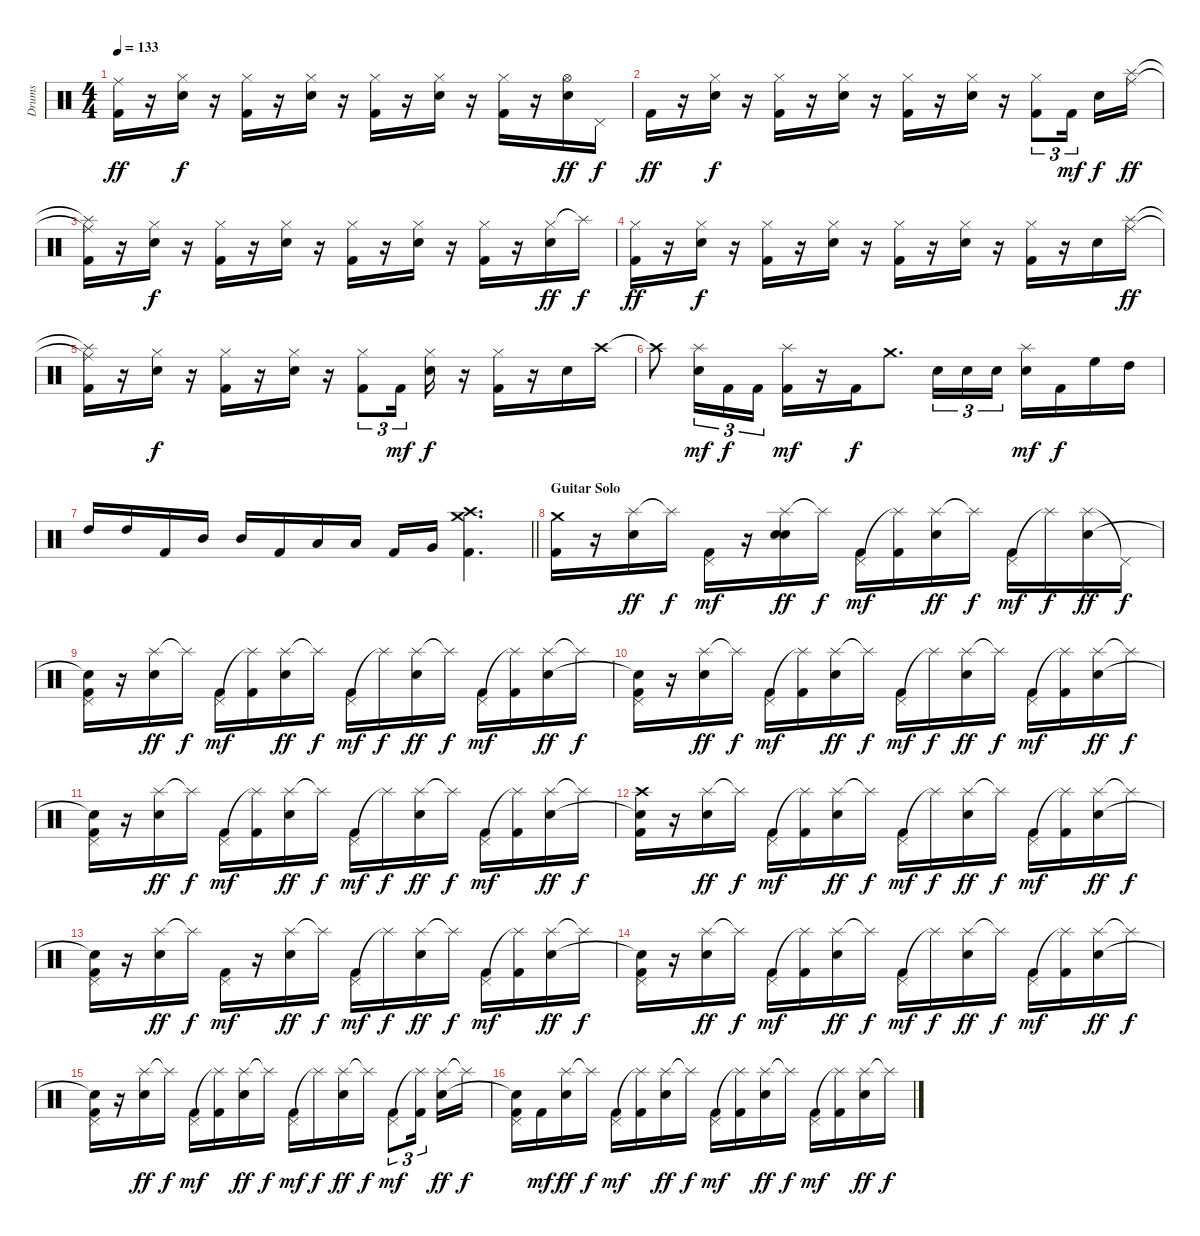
\track ("Drums" "Drums") {instrument percussion}
\staff {score}
\articulation defaults
\ts (4 4)
\tempo 133
\clef neutral
\ks c
("Ride (middle)"{t} "Kick (hit) 2").16{dy ff} r.16 ("Hi-Hat (closed)" "Snare (hit) 2").16{dy f} r.16 ("Hi-Hat (closed)" "Kick (hit) 2").16 r.16 ("Hi-Hat (closed)" "Snare (hit) 2").16 r.16 ("Hi-Hat (closed)" "Kick (hit) 2").16 r.16 ("Hi-Hat (closed)" "Snare (hit) 2").16 r.16 ("Hi-Hat (closed)" "Kick (hit) 2").16 r.16 ("Hi-Hat (open)" "Snare (hit) 2").16{dy ff} "Pedal Hi-Hat (hit)".16{dy f} |
"Kick (hit) 2".16{dy ff} r.16 ("Hi-Hat (closed)" "Snare (hit) 2").16{dy f} r.16 ("Hi-Hat (closed)" "Kick (hit) 2").16 r.16 ("Hi-Hat (closed)" "Snare (hit) 2").16 r.16 ("Hi-Hat (closed)" "Kick (hit) 2").16 r.16 ("Hi-Hat (closed)" "Snare (hit) 2").16 r.16 ("Hi-Hat (closed)" "Kick (hit) 2").8{tu (3 2)} "Kick (hit) 2".16{tu (3 2) dy mf beam splitsecondary} "Snare (hit) 2".16{dy f} ("Ride (middle)" "Splash (hit)").16{dy ff} |
("Ride (middle)"{t} "Splash (hit)"{t} "Kick (hit) 2").16 r.16 ("Hi-Hat (closed)" "Snare (hit) 2").16{dy f} r.16 ("Hi-Hat (closed)" "Kick (hit) 2").16 r.16 ("Hi-Hat (closed)" "Snare (hit) 2").16 r.16 ("Hi-Hat (closed)" "Kick (hit) 2").16 r.16 ("Hi-Hat (closed)" "Snare (hit) 2").16 r.16 ("Hi-Hat (closed)" "Kick (hit) 2").16 r.16 ("Hi-Hat (closed)" "Snare (hit) 2").16{dy ff} "Splash (hit)"{t}.16{dy f} |
("Hi-Hat (closed)" "Kick (hit) 2").16{dy ff} r.16 ("Hi-Hat (closed)" "Snare (hit) 2").16{dy f} r.16 ("Hi-Hat (closed)" "Kick (hit) 2").16 r.16 ("Hi-Hat (closed)" "Snare (hit) 2").16 r.16 ("Hi-Hat (closed)" "Kick (hit) 2").16 r.16 ("Hi-Hat (closed)" "Snare (hit) 2").16 r.16 ("Hi-Hat (closed)" "Kick (hit) 2").16 r.16 "Snare (hit) 2".16 ("Ride (middle)" "Splash (hit)").16{dy ff} |
("Ride (middle)"{t} "Splash (hit)"{t} "Kick (hit) 2").16 r.16 ("Hi-Hat (closed)" "Snare (hit) 2").16{dy f} r.16 ("Hi-Hat (closed)" "Kick (hit) 2").16 r.16 ("Hi-Hat (closed)" "Snare (hit) 2").16 r.16 ("Hi-Hat (closed)" "Kick (hit) 2").8{tu (3 2)} "Kick (hit) 2".16{tu (3 2) dy mf} ("Hi-Hat (closed)" "Snare (hit) 2").16{dy f} r.16 ("Hi-Hat (closed)" "Kick (hit) 2").16 r.16 "Snare (hit) 2".16 "Crash high (hit)".16 |
"Crash high (hit)"{t}.8 ("Splash (hit)" "Snare (hit) 2").16{tu (3 2) dy mf} "Kick (hit) 2".16{tu (3 2) dy f} "Kick (hit) 2".16{tu (3 2)} ("Splash (hit)" "Kick (hit) 2").16{dy mf} r.16 "Kick (hit) 2".16{dy f} "Crash medium (hit)".8{d} "Snare (hit) 2".16{tu (3 2)} "Snare (hit) 2".16{tu (3 2)} "Snare (hit) 2".16{tu (3 2)} ("Splash (hit)" "Snare (hit) 2").16{dy mf} "Kick (hit) 2".16{dy f} "High Floor Tom (hit)".16 "High Tom (hit)".16 |
\barLineRight lightlight "High Tom (hit)".16 "High Tom (hit)".16 "Kick (hit) 2".16 "Mid Tom (hit)".16 "Mid Tom (hit)".16 "Kick (hit) 2".16 "Low Tom (hit)".16 "Low Tom (hit)".16 "Kick (hit) 2".16 "Very Low Tom (hit)".16
("Crash medium (hit)" "Crash high (hit)" "Kick (hit) 2").4{d} |
\section ("" "Guitar Solo")
("Crash medium (hit)" "Kick (hit) 2").16 r.16 ("Splash (hit)" "Snare (hit) 2").16{dy ff} "Splash (hit)"{t}.16{dy f} ("Pedal Hi-Hat (hit)" "Kick (hit) 2").16{dy mf} r.16 ("Splash (hit)" "Snare (hit) 2" "Snare (hit) 2").16{dy ff} "Splash (hit)"{t}.16{dy f} ("Pedal Hi-Hat (hit)" "Kick (hit) 2").16{dy mf} ("Splash (hit)"{t} "Kick (hit) 2").16 ("Splash (hit)" "Snare (hit) 2").16{dy ff} "Splash (hit)"{t}.16{dy f} ("Pedal Hi-Hat (hit)" "Kick (hit) 2").16{dy mf} "Splash (hit)"{t}.16{dy f} ("Splash (hit)" "Snare (hit) 2").16{dy ff} "Pedal Hi-Hat (hit)"{t}.16{dy f} |
("Pedal Hi-Hat (hit)" "Snare (hit)"{t} "Kick (hit) 2").16 r.16 ("Splash (hit)" "Snare (hit) 2").16{dy ff} "Splash (hit)"{t}.16{dy f} ("Pedal Hi-Hat (hit)" "Kick (hit) 2").16{dy mf} ("Splash (hit)"{t} "Kick (hit) 2").16 ("Splash (hit)" "Snare (hit) 2").16{dy ff} "Splash (hit)"{t}.16{dy f} ("Pedal Hi-Hat (hit)" "Kick (hit) 2").16{dy mf} "Splash (hit)"{t}.16{dy f} ("Splash (hit)" "Snare (hit) 2").16{dy ff} "Splash (hit)"{t}.16{dy f} ("Pedal Hi-Hat (hit)" "Kick (hit) 2").16{dy mf} ("Splash (hit)"{t} "Kick (hit) 2").16 ("Splash (hit)" "Snare (hit) 2").16{dy ff} "Splash (hit)"{t}.16{dy f} |
("Pedal Hi-Hat (hit)" "Snare (hit)"{t} "Kick (hit) 2").16 r.16 ("Splash (hit)" "Snare (hit) 2").16{dy ff} "Splash (hit)"{t}.16{dy f} ("Pedal Hi-Hat (hit)" "Kick (hit) 2").16{dy mf} ("Splash (hit)"{t} "Kick (hit) 2").16 ("Splash (hit)" "Snare (hit) 2").16{dy ff} "Splash (hit)"{t}.16{dy f} ("Pedal Hi-Hat (hit)" "Kick (hit) 2").16{dy mf} "Splash (hit)"{t}.16{dy f} ("Splash (hit)" "Snare (hit) 2").16{dy ff} "Splash (hit)"{t}.16{dy f} ("Pedal Hi-Hat (hit)" "Kick (hit) 2").16{dy mf} ("Splash (hit)"{t} "Kick (hit) 2").16 ("Splash (hit)" "Snare (hit) 2").16{dy ff} "Splash (hit)"{t}.16{dy f} |
("Pedal Hi-Hat (hit)" "Snare (hit)"{t} "Kick (hit) 2").16 r.16 ("Splash (hit)" "Snare (hit) 2").16{dy ff} "Splash (hit)"{t}.16{dy f} ("Pedal Hi-Hat (hit)" "Kick (hit) 2").16{dy mf} ("Splash (hit)"{t} "Kick (hit) 2").16 ("Splash (hit)" "Snare (hit) 2").16{dy ff} "Splash (hit)"{t}.16{dy f} ("Pedal Hi-Hat (hit)" "Kick (hit) 2").16{dy mf} "Splash (hit)"{t}.16{dy f} ("Splash (hit)" "Snare (hit) 2").16{dy ff} "Splash (hit)"{t}.16{dy f} ("Pedal Hi-Hat (hit)" "Kick (hit) 2").16{dy mf} ("Splash (hit)"{t} "Kick (hit) 2").16 ("Splash (hit)" "Snare (hit) 2").16{dy ff} "Splash (hit)"{t}.16{dy f} |
("Crash high (hit)" "Snare (hit)"{t} "Kick (hit) 2").16 r.16 ("Splash (hit)" "Snare (hit) 2").16{dy ff} "Splash (hit)"{t}.16{dy f} ("Pedal Hi-Hat (hit)" "Kick (hit) 2").16{dy mf} ("Splash (hit)"{t} "Kick (hit) 2").16 ("Splash (hit)" "Snare (hit) 2").16{dy ff} "Splash (hit)"{t}.16{dy f} ("Pedal Hi-Hat (hit)" "Kick (hit) 2").16{dy mf} "Splash (hit)"{t}.16{dy f} ("Splash (hit)" "Snare (hit) 2").16{dy ff} "Splash (hit)"{t}.16{dy f} ("Pedal Hi-Hat (hit)" "Kick (hit) 2").16{dy mf} ("Splash (hit)"{t} "Kick (hit) 2").16 ("Splash (hit)" "Snare (hit) 2").16{dy ff} "Splash (hit)"{t}.16{dy f} |
("Pedal Hi-Hat (hit)" "Snare (hit)"{t} "Kick (hit) 2").16 r.16 ("Splash (hit)" "Snare (hit) 2").16{dy ff} "Splash (hit)"{t}.16{dy f} ("Pedal Hi-Hat (hit)" "Kick (hit) 2").16{dy mf} r.16 ("Splash (hit)" "Snare (hit) 2").16{dy ff} "Splash (hit)"{t}.16{dy f} ("Pedal Hi-Hat (hit)" "Kick (hit) 2").16{dy mf} "Splash (hit)"{t}.16{dy f} ("Splash (hit)" "Snare (hit) 2").16{dy ff} "Splash (hit)"{t}.16{dy f} ("Pedal Hi-Hat (hit)" "Kick (hit) 2").16{dy mf} ("Splash (hit)"{t} "Kick (hit) 2").16 ("Splash (hit)" "Snare (hit) 2").16{dy ff} "Splash (hit)"{t}.16{dy f} |
("Pedal Hi-Hat (hit)" "Snare (hit)"{t} "Kick (hit) 2").16 r.16 ("Splash (hit)" "Snare (hit) 2").16{dy ff} "Splash (hit)"{t}.16{dy f} ("Pedal Hi-Hat (hit)" "Kick (hit) 2").16{dy mf} ("Splash (hit)"{t} "Kick (hit) 2").16 ("Splash (hit)" "Snare (hit) 2").16{dy ff} "Splash (hit)"{t}.16{dy f} ("Pedal Hi-Hat (hit)" "Kick (hit) 2").16{dy mf} "Splash (hit)"{t}.16{dy f} ("Splash (hit)" "Snare (hit) 2").16{dy ff} "Splash (hit)"{t}.16{dy f} ("Pedal Hi-Hat (hit)" "Kick (hit) 2").16{dy mf} ("Splash (hit)"{t} "Kick (hit) 2").16 ("Splash (hit)" "Snare (hit) 2").16{dy ff} "Splash (hit)"{t}.16{dy f} |
("Pedal Hi-Hat (hit)" "Snare (hit)"{t} "Kick (hit) 2").16 r.16 ("Splash (hit)" "Snare (hit) 2").16{dy ff} "Splash (hit)"{t}.16{dy f} ("Pedal Hi-Hat (hit)" "Kick (hit) 2").16{dy mf} ("Splash (hit)"{t} "Kick (hit) 2").16 ("Splash (hit)" "Snare (hit) 2").16{dy ff} "Splash (hit)"{t}.16{dy f} ("Pedal Hi-Hat (hit)" "Kick (hit) 2").16{dy mf} "Splash (hit)"{t}.16{dy f} ("Splash (hit)" "Snare (hit) 2").16{dy ff} "Splash (hit)"{t}.16{dy f} ("Pedal Hi-Hat (hit)" "Kick (hit) 2").8{tu (3 2) dy mf} ("Splash (hit)"{t} "Kick (hit) 2").16{tu (3 2) beam splitsecondary} ("Splash (hit)" "Snare (hit) 2").16{dy ff} "Splash (hit)"{t}.16{dy f} |
("Pedal Hi-Hat (hit)" "Snare (hit)"{t} "Kick (hit) 2").16 "Kick (hit) 2".16{dy mf} ("Splash (hit)" "Snare (hit) 2").16{dy ff} "Splash (hit)"{t}.16{dy f} ("Pedal Hi-Hat (hit)" "Kick (hit) 2").16{dy mf} ("Splash (hit)"{t} "Kick (hit) 2").16 ("Splash (hit)" "Snare (hit) 2").16{dy ff} "Splash (hit)"{t}.16{dy f} ("Pedal Hi-Hat (hit)" "Kick (hit) 2").16{dy mf} ("Splash (hit)"{t} "Kick (hit) 2").16 ("Splash (hit)" "Snare (hit) 2").16{dy ff} "Splash (hit)"{t}.16{dy f} ("Pedal Hi-Hat (hit)" "Kick (hit) 2").16{dy mf} ("Splash (hit)"{t} "Kick (hit) 2").16 ("Splash (hit)" "Snare (hit) 2").16{dy ff} "Splash (hit)"{t}.16{dy f}
